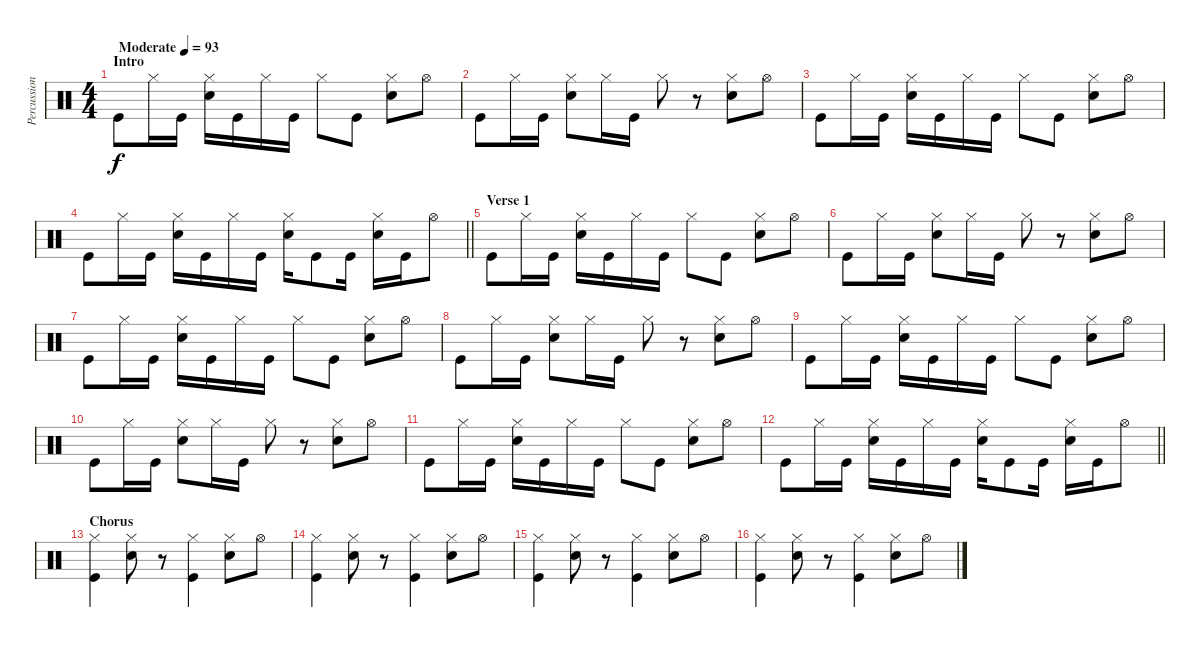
\track ("Percussion" "Percussion") {instrument percussion}
\staff {score}
\articulation defaults
\ts (4 4)
\section ("" "Intro")
\tempo (93 "Moderate")
\clef neutral
\ks c "Kick (hit)".8{dy f} "Hi-Hat (closed)".16 "Kick (hit)".16
("Hi-Hat (closed)" "Snare (hit) 2").16 "Kick (hit)".16 "Hi-Hat (closed)".16 "Kick (hit)".16 "Hi-Hat (closed)".8 "Kick (hit)".8 ("Hi-Hat (closed)" "Snare (hit) 2").8 "Hi-Hat (open)".8 |
"Kick (hit)".8 "Hi-Hat (closed)".16 "Kick (hit)".16 ("Hi-Hat (closed)" "Snare (hit) 2").8 "Hi-Hat (closed)".16 "Kick (hit)".16 "Hi-Hat (closed)".8 r.8 ("Hi-Hat (closed)" "Snare (hit) 2").8 "Hi-Hat (open)".8 |
"Kick (hit)".8 "Hi-Hat (closed)".16 "Kick (hit)".16 ("Hi-Hat (closed)" "Snare (hit) 2").16 "Kick (hit)".16 "Hi-Hat (closed)".16 "Kick (hit)".16 "Hi-Hat (closed)".8 "Kick (hit)".8 ("Hi-Hat (closed)" "Snare (hit) 2").8 "Hi-Hat (open)".8 |
\barLineRight lightlight "Kick (hit)".8 "Hi-Hat (closed)".16 "Kick (hit)".16
("Hi-Hat (closed)" "Snare (hit) 2").16 "Kick (hit)".16 "Hi-Hat (closed)".16 "Kick (hit)".16 ("Hi-Hat (closed)" "Snare (hit) 2").16 "Kick (hit)".8 "Kick (hit)".16 ("Hi-Hat (closed)" "Snare (hit) 2").16 "Kick (hit)".16 "Hi-Hat (open)".8 |
\section ("" "Verse 1")
"Kick (hit)".8 "Hi-Hat (closed)".16 "Kick (hit)".16 ("Hi-Hat (closed)" "Snare (hit) 2").16 "Kick (hit)".16 "Hi-Hat (closed)".16 "Kick (hit)".16 "Hi-Hat (closed)".8 "Kick (hit)".8 ("Hi-Hat (closed)" "Snare (hit) 2").8 "Hi-Hat (open)".8 |
"Kick (hit)".8 "Hi-Hat (closed)".16 "Kick (hit)".16 ("Hi-Hat (closed)" "Snare (hit) 2").8 "Hi-Hat (closed)".16 "Kick (hit)".16 "Hi-Hat (closed)".8 r.8 ("Hi-Hat (closed)" "Snare (hit) 2").8 "Hi-Hat (open)".8 |
"Kick (hit)".8 "Hi-Hat (closed)".16 "Kick (hit)".16 ("Hi-Hat (closed)" "Snare (hit) 2").16 "Kick (hit)".16 "Hi-Hat (closed)".16 "Kick (hit)".16 "Hi-Hat (closed)".8 "Kick (hit)".8 ("Hi-Hat (closed)" "Snare (hit) 2").8 "Hi-Hat (open)".8 |
"Kick (hit)".8 "Hi-Hat (closed)".16 "Kick (hit)".16 ("Hi-Hat (closed)" "Snare (hit) 2").8 "Hi-Hat (closed)".16 "Kick (hit)".16 "Hi-Hat (closed)".8 r.8 ("Hi-Hat (closed)" "Snare (hit) 2").8 "Hi-Hat (open)".8 |
"Kick (hit)".8 "Hi-Hat (closed)".16 "Kick (hit)".16 ("Hi-Hat (closed)" "Snare (hit) 2").16 "Kick (hit)".16 "Hi-Hat (closed)".16 "Kick (hit)".16 "Hi-Hat (closed)".8 "Kick (hit)".8 ("Hi-Hat (closed)" "Snare (hit) 2").8 "Hi-Hat (open)".8 |
"Kick (hit)".8 "Hi-Hat (closed)".16 "Kick (hit)".16 ("Hi-Hat (closed)" "Snare (hit) 2").8 "Hi-Hat (closed)".16 "Kick (hit)".16 "Hi-Hat (closed)".8 r.8 ("Hi-Hat (closed)" "Snare (hit) 2").8 "Hi-Hat (open)".8 |
"Kick (hit)".8 "Hi-Hat (closed)".16 "Kick (hit)".16 ("Hi-Hat (closed)" "Snare (hit) 2").16 "Kick (hit)".16 "Hi-Hat (closed)".16 "Kick (hit)".16 "Hi-Hat (closed)".8 "Kick (hit)".8 ("Hi-Hat (closed)" "Snare (hit) 2").8 "Hi-Hat (open)".8 |
\barLineRight lightlight "Kick (hit)".8 "Hi-Hat (closed)".16 "Kick (hit)".16
("Hi-Hat (closed)" "Snare (hit) 2").16 "Kick (hit)".16 "Hi-Hat (closed)".16 "Kick (hit)".16 ("Hi-Hat (closed)" "Snare (hit) 2").16 "Kick (hit)".8 "Kick (hit)".16 ("Hi-Hat (closed)" "Snare (hit) 2").16 "Kick (hit)".16 "Hi-Hat (open)".8 |
\section ("" "Chorus")
("Hi-Hat (closed)" "Kick (hit)").4 ("Hi-Hat (closed)" "Snare (hit) 2").8 r.8 ("Hi-Hat (closed)" "Kick (hit)").4 ("Hi-Hat (closed)" "Snare (hit) 2").8 "Hi-Hat (open)".8 |
("Hi-Hat (closed)" "Kick (hit)").4 ("Hi-Hat (closed)" "Snare (hit) 2").8 r.8 ("Hi-Hat (closed)" "Kick (hit)").4 ("Hi-Hat (closed)" "Snare (hit) 2").8 "Hi-Hat (open)".8 |
("Hi-Hat (closed)" "Kick (hit)").4 ("Hi-Hat (closed)" "Snare (hit) 2").8 r.8 ("Hi-Hat (closed)" "Kick (hit)").4 ("Hi-Hat (closed)" "Snare (hit) 2").8 "Hi-Hat (open)".8 |
("Hi-Hat (closed)" "Kick (hit)").4 ("Hi-Hat (closed)" "Snare (hit) 2").8 r.8 ("Hi-Hat (closed)" "Kick (hit)").4 ("Hi-Hat (closed)" "Snare (hit) 2").8 "Hi-Hat (open)".8
